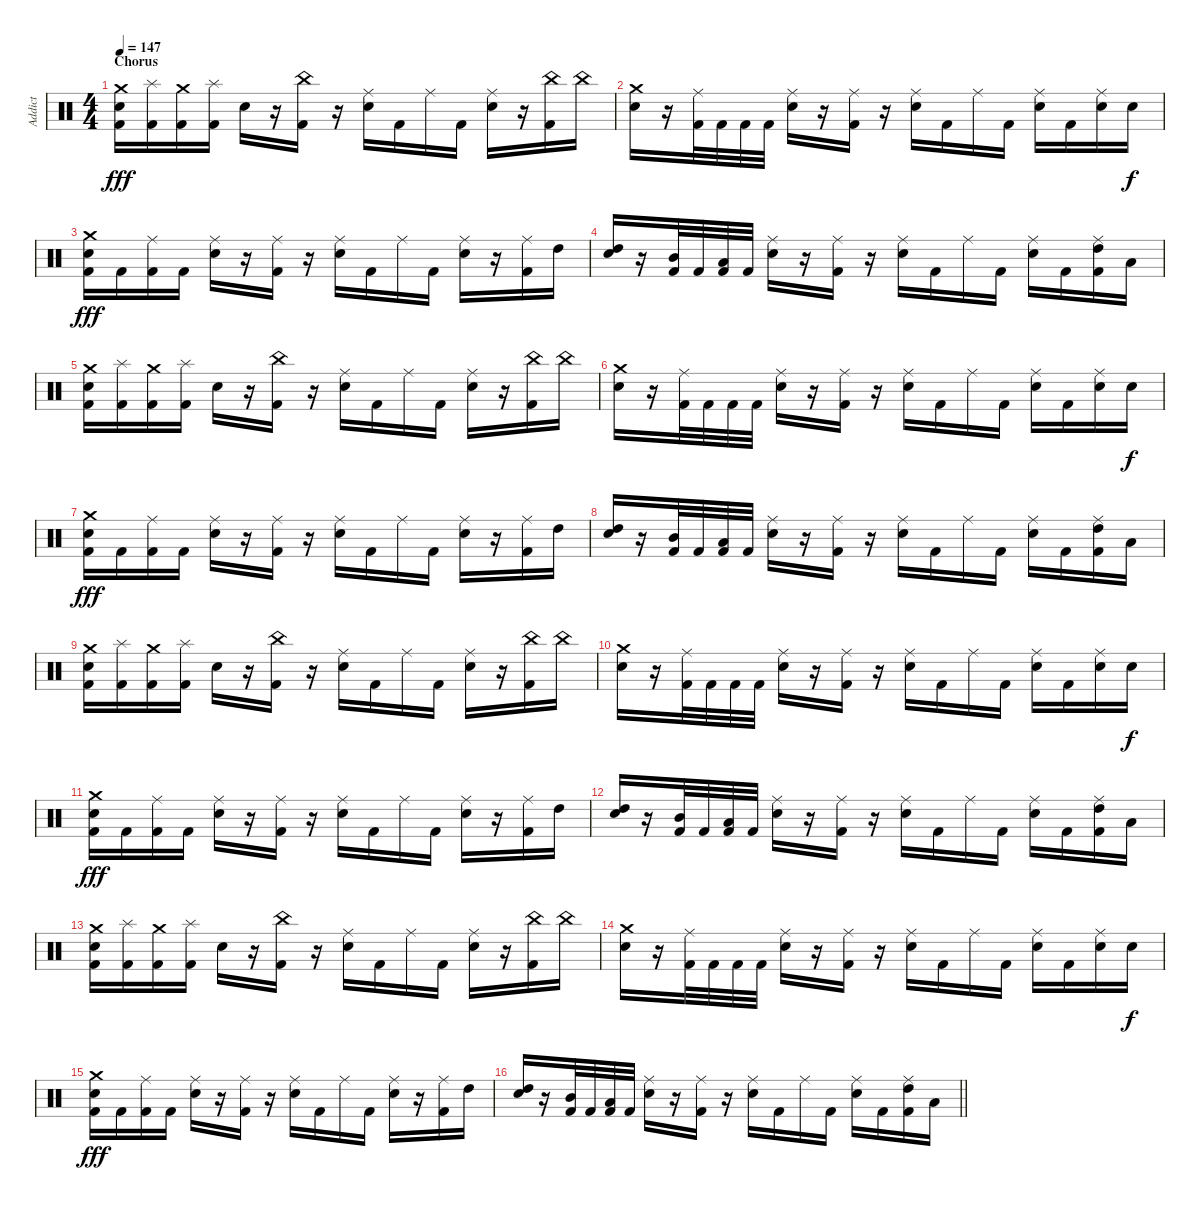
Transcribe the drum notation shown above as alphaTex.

\track ("Addict" "Addict") {instrument percussion}
\staff {score}
\articulation defaults
\ts (4 4)
\section ("" "Chorus")
\tempo 147
\clef neutral
\ks c
("Kick (hit) 2" "Snare (hit) 2" "Crash medium (hit)").16{dy fff} ("Kick (hit) 2" "Splash (hit)").16 ("Kick (hit) 2" "Crash medium (hit)").16 ("Kick (hit) 2" "Splash (hit)").16 "Snare (hit) 2".16 r.16 ("Kick (hit) 2" "China (hit)").16 r.16 ("Snare (hit) 2" "Ride (middle)").16 "Kick (hit) 2".16 "Ride (middle)".16 "Kick (hit) 2".16 ("Snare (hit) 2" "Ride (middle)").16 r.16 ("Kick (hit) 2" "China (hit)").16 "China (hit)".16 |
("Snare (hit) 2" "Crash medium (hit)").16 r.16 ("Kick (hit) 2" "Ride (middle)").32 "Kick (hit) 2".32 "Kick (hit) 2".32 "Kick (hit) 2".32 ("Snare (hit) 2" "Ride (middle)").16 r.16 ("Kick (hit) 2" "Ride (middle)").16 r.16 ("Snare (hit) 2" "Ride (middle)").16 "Kick (hit) 2".16 "Ride (middle)".16 "Kick (hit) 2".16 ("Snare (hit) 2" "Ride (middle)").16 "Kick (hit) 2".16 ("Snare (hit) 2" "Ride (middle)").16 "Snare (hit) 2".16{dy f} |
("Kick (hit) 2" "Snare (hit) 2" "Crash medium (hit)").16{dy fff} "Kick (hit) 2".16 ("Kick (hit) 2" "Ride (middle)").16 "Kick (hit) 2".16 ("Snare (hit) 2" "Ride (middle)").16 r.16 ("Kick (hit) 2" "Ride (middle)").16 r.16 ("Snare (hit) 2" "Ride (middle)").16 "Kick (hit) 2".16 "Ride (middle)".16 "Kick (hit) 2".16 ("Snare (hit) 2" "Ride (middle)").16 r.16 ("Kick (hit) 2" "Ride (middle)").16 "High Tom (hit)".16 |
("Snare (hit) 2" "High Tom (hit)").16 r.16 ("Kick (hit) 2" "Mid Tom (hit)").32 "Kick (hit) 2".32 ("Kick (hit) 2" "Low Tom (hit)").32 "Kick (hit) 2".32 ("Snare (hit) 2" "Ride (middle)").16 r.16 ("Kick (hit) 2" "Ride (middle)").16 r.16 ("Snare (hit) 2" "Ride (middle)").16 "Kick (hit) 2".16 "Ride (middle)".16 "Kick (hit) 2".16 ("Snare (hit) 2" "Ride (middle)").16 "Kick (hit) 2".16 ("Kick (hit) 2" "Ride (middle)" "High Tom (hit)").16 "Low Tom (hit)".16 |
("Kick (hit) 2" "Snare (hit) 2" "Crash medium (hit)").16 ("Kick (hit) 2" "Splash (hit)").16 ("Kick (hit) 2" "Crash medium (hit)").16 ("Kick (hit) 2" "Splash (hit)").16 "Snare (hit) 2".16 r.16 ("Kick (hit) 2" "China (hit)").16 r.16 ("Snare (hit) 2" "Ride (middle)").16 "Kick (hit) 2".16 "Ride (middle)".16 "Kick (hit) 2".16 ("Snare (hit) 2" "Ride (middle)").16 r.16 ("Kick (hit) 2" "China (hit)").16 "China (hit)".16 |
("Snare (hit) 2" "Crash medium (hit)").16 r.16 ("Kick (hit) 2" "Ride (middle)").32 "Kick (hit) 2".32 "Kick (hit) 2".32 "Kick (hit) 2".32 ("Snare (hit) 2" "Ride (middle)").16 r.16 ("Kick (hit) 2" "Ride (middle)").16 r.16 ("Snare (hit) 2" "Ride (middle)").16 "Kick (hit) 2".16 "Ride (middle)".16 "Kick (hit) 2".16 ("Snare (hit) 2" "Ride (middle)").16 "Kick (hit) 2".16 ("Snare (hit) 2" "Ride (middle)").16 "Snare (hit) 2".16{dy f} |
("Kick (hit) 2" "Snare (hit) 2" "Crash medium (hit)").16{dy fff} "Kick (hit) 2".16 ("Kick (hit) 2" "Ride (middle)").16 "Kick (hit) 2".16 ("Snare (hit) 2" "Ride (middle)").16 r.16 ("Kick (hit) 2" "Ride (middle)").16 r.16 ("Snare (hit) 2" "Ride (middle)").16 "Kick (hit) 2".16 "Ride (middle)".16 "Kick (hit) 2".16 ("Snare (hit) 2" "Ride (middle)").16 r.16 ("Kick (hit) 2" "Ride (middle)").16 "High Tom (hit)".16 |
("Snare (hit) 2" "High Tom (hit)").16 r.16 ("Kick (hit) 2" "Mid Tom (hit)").32 "Kick (hit) 2".32 ("Kick (hit) 2" "Low Tom (hit)").32 "Kick (hit) 2".32 ("Snare (hit) 2" "Ride (middle)").16 r.16 ("Kick (hit) 2" "Ride (middle)").16 r.16 ("Snare (hit) 2" "Ride (middle)").16 "Kick (hit) 2".16 "Ride (middle)".16 "Kick (hit) 2".16 ("Snare (hit) 2" "Ride (middle)").16 "Kick (hit) 2".16 ("Kick (hit) 2" "Ride (middle)" "High Tom (hit)").16 "Low Tom (hit)".16 |
("Kick (hit) 2" "Snare (hit) 2" "Crash medium (hit)").16 ("Kick (hit) 2" "Splash (hit)").16 ("Kick (hit) 2" "Crash medium (hit)").16 ("Kick (hit) 2" "Splash (hit)").16 "Snare (hit) 2".16 r.16 ("Kick (hit) 2" "China (hit)").16 r.16 ("Snare (hit) 2" "Ride (middle)").16 "Kick (hit) 2".16 "Ride (middle)".16 "Kick (hit) 2".16 ("Snare (hit) 2" "Ride (middle)").16 r.16 ("Kick (hit) 2" "China (hit)").16 "China (hit)".16 |
("Snare (hit) 2" "Crash medium (hit)").16 r.16 ("Kick (hit) 2" "Ride (middle)").32 "Kick (hit) 2".32 "Kick (hit) 2".32 "Kick (hit) 2".32 ("Snare (hit) 2" "Ride (middle)").16 r.16 ("Kick (hit) 2" "Ride (middle)").16 r.16 ("Snare (hit) 2" "Ride (middle)").16 "Kick (hit) 2".16 "Ride (middle)".16 "Kick (hit) 2".16 ("Snare (hit) 2" "Ride (middle)").16 "Kick (hit) 2".16 ("Snare (hit) 2" "Ride (middle)").16 "Snare (hit) 2".16{dy f} |
("Kick (hit) 2" "Snare (hit) 2" "Crash medium (hit)").16{dy fff} "Kick (hit) 2".16 ("Kick (hit) 2" "Ride (middle)").16 "Kick (hit) 2".16 ("Snare (hit) 2" "Ride (middle)").16 r.16 ("Kick (hit) 2" "Ride (middle)").16 r.16 ("Snare (hit) 2" "Ride (middle)").16 "Kick (hit) 2".16 "Ride (middle)".16 "Kick (hit) 2".16 ("Snare (hit) 2" "Ride (middle)").16 r.16 ("Kick (hit) 2" "Ride (middle)").16 "High Tom (hit)".16 |
("Snare (hit) 2" "High Tom (hit)").16 r.16 ("Kick (hit) 2" "Mid Tom (hit)").32 "Kick (hit) 2".32 ("Kick (hit) 2" "Low Tom (hit)").32 "Kick (hit) 2".32 ("Snare (hit) 2" "Ride (middle)").16 r.16 ("Kick (hit) 2" "Ride (middle)").16 r.16 ("Snare (hit) 2" "Ride (middle)").16 "Kick (hit) 2".16 "Ride (middle)".16 "Kick (hit) 2".16 ("Snare (hit) 2" "Ride (middle)").16 "Kick (hit) 2".16 ("Kick (hit) 2" "Ride (middle)" "High Tom (hit)").16 "Low Tom (hit)".16 |
("Kick (hit) 2" "Snare (hit) 2" "Crash medium (hit)").16 ("Kick (hit) 2" "Splash (hit)").16 ("Kick (hit) 2" "Crash medium (hit)").16 ("Kick (hit) 2" "Splash (hit)").16 "Snare (hit) 2".16 r.16 ("Kick (hit) 2" "China (hit)").16 r.16 ("Snare (hit) 2" "Ride (middle)").16 "Kick (hit) 2".16 "Ride (middle)".16 "Kick (hit) 2".16 ("Snare (hit) 2" "Ride (middle)").16 r.16 ("Kick (hit) 2" "China (hit)").16 "China (hit)".16 |
("Snare (hit) 2" "Crash medium (hit)").16 r.16 ("Kick (hit) 2" "Ride (middle)").32 "Kick (hit) 2".32 "Kick (hit) 2".32 "Kick (hit) 2".32 ("Snare (hit) 2" "Ride (middle)").16 r.16 ("Kick (hit) 2" "Ride (middle)").16 r.16 ("Snare (hit) 2" "Ride (middle)").16 "Kick (hit) 2".16 "Ride (middle)".16 "Kick (hit) 2".16 ("Snare (hit) 2" "Ride (middle)").16 "Kick (hit) 2".16 ("Snare (hit) 2" "Ride (middle)").16 "Snare (hit) 2".16{dy f} |
("Kick (hit) 2" "Snare (hit) 2" "Crash medium (hit)").16{dy fff} "Kick (hit) 2".16 ("Kick (hit) 2" "Ride (middle)").16 "Kick (hit) 2".16 ("Snare (hit) 2" "Ride (middle)").16 r.16 ("Kick (hit) 2" "Ride (middle)").16 r.16 ("Snare (hit) 2" "Ride (middle)").16 "Kick (hit) 2".16 "Ride (middle)".16 "Kick (hit) 2".16 ("Snare (hit) 2" "Ride (middle)").16 r.16 ("Kick (hit) 2" "Ride (middle)").16 "High Tom (hit)".16 |
\barLineRight lightlight
("Snare (hit) 2" "High Tom (hit)").16 r.16 ("Kick (hit) 2" "Mid Tom (hit)").32 "Kick (hit) 2".32 ("Kick (hit) 2" "Low Tom (hit)").32 "Kick (hit) 2".32 ("Snare (hit) 2" "Ride (middle)").16 r.16 ("Kick (hit) 2" "Ride (middle)").16 r.16 ("Snare (hit) 2" "Ride (middle)").16 "Kick (hit) 2".16 "Ride (middle)".16 "Kick (hit) 2".16 ("Snare (hit) 2" "Ride (middle)").16 "Kick (hit) 2".16 ("Kick (hit) 2" "Ride (middle)" "High Tom (hit)").16 "Low Tom (hit)".16
